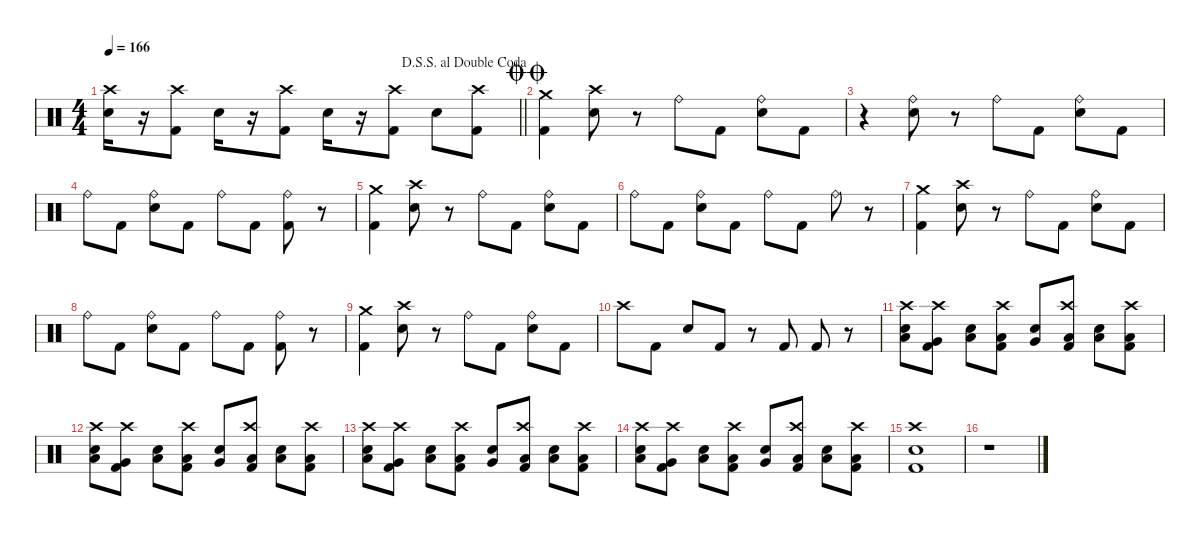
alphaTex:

\defaultSystemsLayout 4
\hideDynamics
\bracketExtendMode nobrackets
\singleTrackTrackNamePolicy hidden
\multiTrackTrackNamePolicy hidden
\firstSystemTrackNameMode fullname
\otherSystemsTrackNameOrientation horizontal
\track ("Drums" "drm.") {instrument percussion}
\staff {score}
\articulation defaults
\ts (4 4)
\jump dalsegnosegnoaldoublecoda
\tempo 166
\clef neutral
\barLineRight lightlight
\ks c
("Crash high (hit)" "Snare (hit) 2").16{dy f beam Down} r.16{beam Down} ("Kick (hit) 2" "Crash high (hit)").8{beam Down} "Snare (hit) 2".16{beam Down} r.16{beam Down} ("Kick (hit) 2" "Crash high (hit)").8{beam Down} "Snare (hit) 2".16{beam Down} r.16{beam Down} ("Kick (hit) 2" "Crash high (hit)").8{beam Down} "Snare (hit) 2".8{beam Down} ("Kick (hit) 2" "Crash high (hit)").8{beam Down} |
\jump doublecoda
("Crash medium (hit)" "Kick (hit) 2").4{beam Down} ("Snare (hit) 2" "Crash high (hit)").8{beam Down} r.8{beam Down} "Ride (bell)".8{beam Down} "Kick (hit) 2".8{beam Down} ("Snare (hit) 2" "Ride (bell)").8{beam Down} "Kick (hit) 2".8{beam Down} |
r.4{beam Down} ("Snare (hit) 2" "Ride (bell)").8{beam Down} r.8{beam Down} "Ride (bell)".8{beam Down} "Kick (hit) 2".8{beam Down} ("Snare (hit) 2" "Ride (bell)").8{beam Down} "Kick (hit) 2".8{beam Down} |
"Ride (bell)".8{beam Down} "Kick (hit) 2".8{beam Down} ("Snare (hit) 2" "Ride (bell)").8{beam Down} "Kick (hit) 2".8{beam Down} "Ride (bell)".8{beam Down} "Kick (hit) 2".8{beam Down} ("Ride (bell)" "Kick (hit) 2").8{beam Down} r.8{beam Down} |
("Crash medium (hit)" "Kick (hit) 2").4{beam Down} ("Snare (hit) 2" "Crash high (hit)").8{beam Down} r.8{beam Down} "Ride (bell)".8{beam Down} "Kick (hit) 2".8{beam Down} ("Snare (hit) 2" "Ride (bell)").8{beam Down} "Kick (hit) 2".8{beam Down} |
"Ride (bell)".8{beam Down} "Kick (hit) 2".8{beam Down} ("Snare (hit) 2" "Ride (bell)").8{beam Down} "Kick (hit) 2".8{beam Down} "Ride (bell)".8{beam Down} "Kick (hit) 2".8{beam Down} "Ride (bell)".8{beam Down} r.8{beam Down} |
("Kick (hit) 2" "Crash medium (hit)").4{beam Down} ("Snare (hit) 2" "Crash high (hit)").8{beam Down} r.8{beam Down} "Ride (bell)".8{beam Down} "Kick (hit) 2".8{beam Down} ("Snare (hit) 2" "Ride (bell)").8{beam Down} "Kick (hit) 2".8{beam Down} |
"Ride (bell)".8{beam Down} "Kick (hit) 2".8{beam Down} ("Snare (hit) 2" "Ride (bell)").8{beam Down} "Kick (hit) 2".8{beam Down} "Ride (bell)".8{beam Down} "Kick (hit) 2".8{beam Down} ("Ride (bell)" "Kick (hit) 2").8{beam Down} r.8{beam Down} |
("Crash medium (hit)" "Kick (hit) 2").4{beam Down} ("Snare (hit) 2" "Crash high (hit)").8{beam Down} r.8{beam Down} "Ride (bell)".8{beam Down} "Kick (hit) 2".8{beam Down} ("Snare (hit) 2" "Ride (bell)").8{beam Down} "Kick (hit) 2".8{beam Down} |
"Crash high (hit)".8{beam Down} "Kick (hit) 2".8{beam Down} "Snare (hit) 2".8{beam Up} "Kick (hit) 2".8{beam Up} r.8{beam Up} "Kick (hit) 2".8{beam Up} "Kick (hit) 2".8{beam Up} r.8{beam Up} |
("Crash high (hit)" "Snare (hit) 2" "Low Floor Tom (hit)").8{beam Down} ("Kick (hit) 2" "Very Low Tom (hit)" "Crash high (hit)").8{beam Down} ("Snare (hit) 2" "Low Floor Tom (hit)").8{beam Down} ("Low Floor Tom (hit)" "Kick (hit) 2" "Crash high (hit)").8{beam Down} ("Snare (hit) 2" "Very Low Tom (hit)").8{beam Up} ("Kick (hit) 2" "Low Floor Tom (hit)" "Crash high (hit)").8{beam Up} ("Snare (hit) 2" "Low Floor Tom (hit)").8{beam Down} ("Kick (hit) 2" "Low Floor Tom (hit)" "Crash high (hit)").8{beam Down} |
("Crash high (hit)" "Snare (hit) 2" "Low Floor Tom (hit)").8{beam Down} ("Kick (hit) 2" "Very Low Tom (hit)" "Crash high (hit)").8{beam Down} ("Snare (hit) 2" "Low Floor Tom (hit)").8{beam Down} ("Low Floor Tom (hit)" "Kick (hit) 2" "Crash high (hit)").8{beam Down} ("Snare (hit) 2" "Very Low Tom (hit)").8{beam Up} ("Kick (hit) 2" "Low Floor Tom (hit)" "Crash high (hit)").8{beam Up} ("Snare (hit) 2" "Low Floor Tom (hit)").8{beam Down} ("Kick (hit) 2" "Low Floor Tom (hit)" "Crash high (hit)").8{beam Down} |
("Crash high (hit)" "Snare (hit) 2" "Low Floor Tom (hit)").8{beam Down} ("Kick (hit) 2" "Very Low Tom (hit)" "Crash high (hit)").8{beam Down} ("Snare (hit) 2" "Low Floor Tom (hit)").8{beam Down} ("Low Floor Tom (hit)" "Kick (hit) 2" "Crash high (hit)").8{beam Down} ("Snare (hit) 2" "Very Low Tom (hit)").8{beam Up} ("Kick (hit) 2" "Low Floor Tom (hit)" "Crash high (hit)").8{beam Up} ("Snare (hit) 2" "Low Floor Tom (hit)").8{beam Down} ("Kick (hit) 2" "Low Floor Tom (hit)" "Crash high (hit)").8{beam Down} |
("Crash high (hit)" "Snare (hit) 2" "Low Floor Tom (hit)").8{beam Down} ("Kick (hit) 2" "Very Low Tom (hit)" "Crash high (hit)").8{beam Down} ("Snare (hit) 2" "Low Floor Tom (hit)").8{beam Down} ("Low Floor Tom (hit)" "Kick (hit) 2" "Crash high (hit)").8{beam Down} ("Snare (hit) 2" "Very Low Tom (hit)").8{beam Up} ("Kick (hit) 2" "Low Floor Tom (hit)" "Crash high (hit)").8{beam Up} ("Snare (hit) 2" "Low Floor Tom (hit)").8{beam Down} ("Kick (hit) 2" "Low Floor Tom (hit)" "Crash high (hit)").8{beam Down} |
("Crash high (hit)" "Snare (hit) 2" "Kick (hit) 2").1{beam Down} |
r.1{beam Down}
